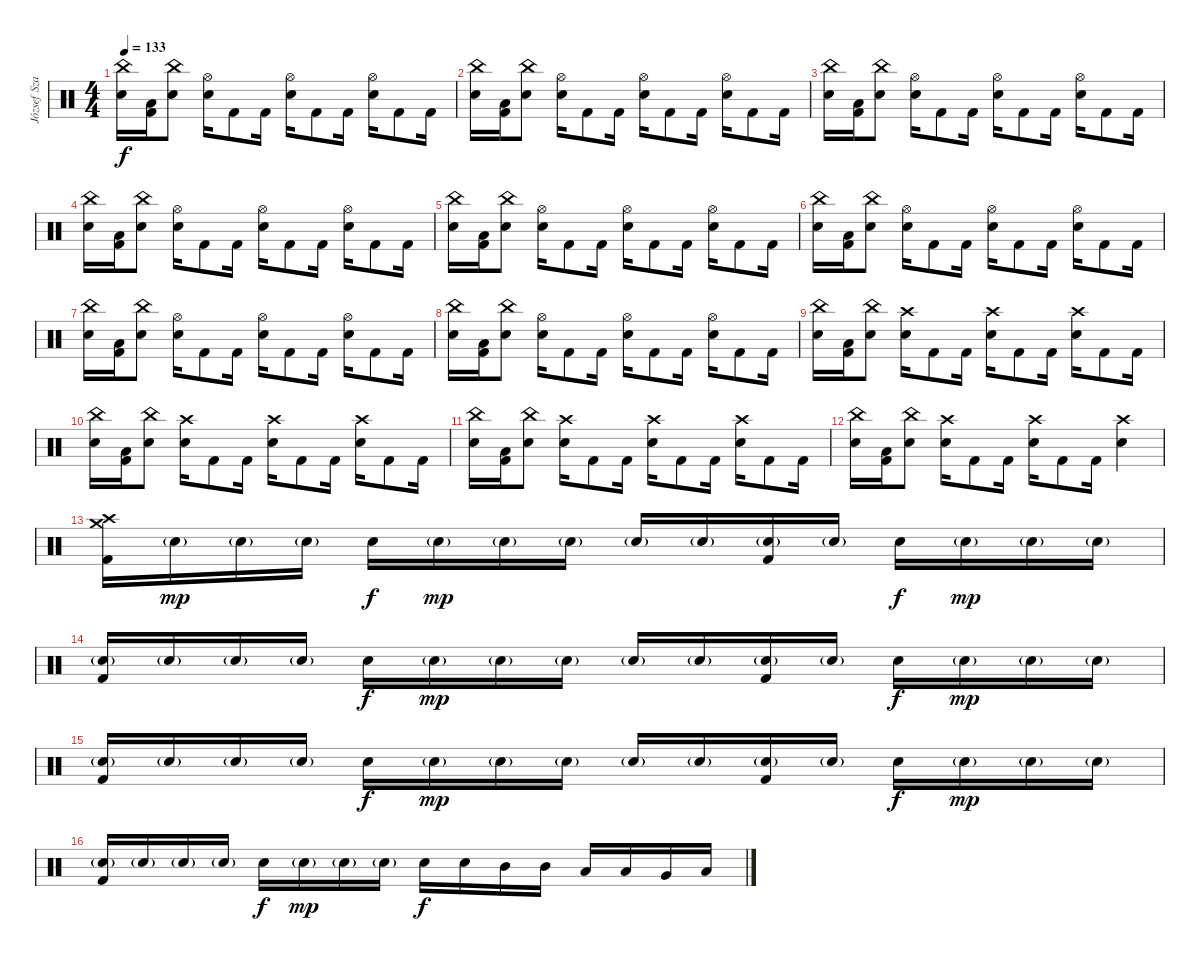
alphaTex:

\track ("József Szakács (Drums)" "József Sza") {instrument percussion}
\staff {score}
\articulation defaults
\ts (4 4)
\tempo 133
\clef neutral
\ks c
("China (hit)" "Snare (hit) 2").16{dy f} ("Kick (hit) 2" "Low Floor Tom (hit)").16 ("China (hit)" "Snare (hit) 2").8 ("Hi-Hat (open)" "Snare (hit) 2").16 "Kick (hit) 2".8 "Kick (hit) 2".16 ("Hi-Hat (open)" "Snare (hit) 2").16 "Kick (hit) 2".8 "Kick (hit) 2".16 ("Hi-Hat (open)" "Snare (hit) 2").16 "Kick (hit) 2".8 "Kick (hit) 2".16 |
("China (hit)" "Snare (hit) 2").16 ("Kick (hit) 2" "Low Floor Tom (hit)").16 ("China (hit)" "Snare (hit) 2").8 ("Hi-Hat (open)" "Snare (hit) 2").16 "Kick (hit) 2".8 "Kick (hit) 2".16 ("Hi-Hat (open)" "Snare (hit) 2").16 "Kick (hit) 2".8 "Kick (hit) 2".16 ("Hi-Hat (open)" "Snare (hit) 2").16 "Kick (hit) 2".8 "Kick (hit) 2".16 |
("China (hit)" "Snare (hit) 2").16 ("Kick (hit) 2" "Low Floor Tom (hit)").16 ("China (hit)" "Snare (hit) 2").8 ("Hi-Hat (open)" "Snare (hit) 2").16 "Kick (hit) 2".8 "Kick (hit) 2".16 ("Hi-Hat (open)" "Snare (hit) 2").16 "Kick (hit) 2".8 "Kick (hit) 2".16 ("Hi-Hat (open)" "Snare (hit) 2").16 "Kick (hit) 2".8 "Kick (hit) 2".16 |
("China (hit)" "Snare (hit) 2").16 ("Kick (hit) 2" "Low Floor Tom (hit)").16 ("China (hit)" "Snare (hit) 2").8 ("Hi-Hat (open)" "Snare (hit) 2").16 "Kick (hit) 2".8 "Kick (hit) 2".16 ("Hi-Hat (open)" "Snare (hit) 2").16 "Kick (hit) 2".8 "Kick (hit) 2".16 ("Hi-Hat (open)" "Snare (hit) 2").16 "Kick (hit) 2".8 "Kick (hit) 2".16 |
("China (hit)" "Snare (hit) 2").16 ("Kick (hit) 2" "Low Floor Tom (hit)").16 ("China (hit)" "Snare (hit) 2").8 ("Hi-Hat (open)" "Snare (hit) 2").16 "Kick (hit) 2".8 "Kick (hit) 2".16 ("Hi-Hat (open)" "Snare (hit) 2").16 "Kick (hit) 2".8 "Kick (hit) 2".16 ("Hi-Hat (open)" "Snare (hit) 2").16 "Kick (hit) 2".8 "Kick (hit) 2".16 |
("China (hit)" "Snare (hit) 2").16 ("Kick (hit) 2" "Low Floor Tom (hit)").16 ("China (hit)" "Snare (hit) 2").8 ("Hi-Hat (open)" "Snare (hit) 2").16 "Kick (hit) 2".8 "Kick (hit) 2".16 ("Hi-Hat (open)" "Snare (hit) 2").16 "Kick (hit) 2".8 "Kick (hit) 2".16 ("Hi-Hat (open)" "Snare (hit) 2").16 "Kick (hit) 2".8 "Kick (hit) 2".16 |
("China (hit)" "Snare (hit) 2").16 ("Kick (hit) 2" "Low Floor Tom (hit)").16 ("China (hit)" "Snare (hit) 2").8 ("Hi-Hat (open)" "Snare (hit) 2").16 "Kick (hit) 2".8 "Kick (hit) 2".16 ("Hi-Hat (open)" "Snare (hit) 2").16 "Kick (hit) 2".8 "Kick (hit) 2".16 ("Hi-Hat (open)" "Snare (hit) 2").16 "Kick (hit) 2".8 "Kick (hit) 2".16 |
("China (hit)" "Snare (hit) 2").16 ("Kick (hit) 2" "Low Floor Tom (hit)").16 ("China (hit)" "Snare (hit) 2").8 ("Hi-Hat (open)" "Snare (hit) 2").16 "Kick (hit) 2".8 "Kick (hit) 2".16 ("Hi-Hat (open)" "Snare (hit) 2").16 "Kick (hit) 2".8 "Kick (hit) 2".16 ("Hi-Hat (open)" "Snare (hit) 2").16 "Kick (hit) 2".8 "Kick (hit) 2".16 |
("China (hit)" "Snare (hit) 2").16 ("Kick (hit) 2" "Low Floor Tom (hit)").16 ("China (hit)" "Snare (hit) 2").8 ("Crash high (hit)" "Snare (hit) 2").16 "Kick (hit) 2".8 "Kick (hit) 2".16 ("Crash high (hit)" "Snare (hit) 2").16 "Kick (hit) 2".8 "Kick (hit) 2".16 ("Crash high (hit)" "Snare (hit) 2").16 "Kick (hit) 2".8 "Kick (hit) 2".16 |
("China (hit)" "Snare (hit) 2").16 ("Kick (hit) 2" "Low Floor Tom (hit)").16 ("China (hit)" "Snare (hit) 2").8 ("Crash high (hit)" "Snare (hit) 2").16 "Kick (hit) 2".8 "Kick (hit) 2".16 ("Crash high (hit)" "Snare (hit) 2").16 "Kick (hit) 2".8 "Kick (hit) 2".16 ("Crash high (hit)" "Snare (hit) 2").16 "Kick (hit) 2".8 "Kick (hit) 2".16 |
("China (hit)" "Snare (hit) 2").16 ("Kick (hit) 2" "Low Floor Tom (hit)").16 ("China (hit)" "Snare (hit) 2").8 ("Crash high (hit)" "Snare (hit) 2").16 "Kick (hit) 2".8 "Kick (hit) 2".16 ("Crash high (hit)" "Snare (hit) 2").16 "Kick (hit) 2".8 "Kick (hit) 2".16 ("Crash high (hit)" "Snare (hit) 2").16 "Kick (hit) 2".8 "Kick (hit) 2".16 |
("China (hit)" "Snare (hit) 2").16 ("Kick (hit) 2" "Low Floor Tom (hit)").16 ("China (hit)" "Snare (hit) 2").8 ("Crash high (hit)" "Snare (hit) 2").16 "Kick (hit) 2".8 "Kick (hit) 2".16 ("Crash high (hit)" "Snare (hit) 2").16 "Kick (hit) 2".8 "Kick (hit) 2".16 ("Crash high (hit)" "Snare (hit) 2").4 |
("Crash medium (hit)" "Crash high (hit)" "Kick (hit) 2").16 "Snare (hit) 2"{g}.16{dy mp} "Snare (hit) 2"{g}.16 "Snare (hit) 2"{g}.16 "Snare (hit) 2".16{dy f} "Snare (hit) 2"{g}.16{dy mp} "Snare (hit) 2"{g}.16 "Snare (hit) 2"{g}.16 "Snare (hit) 2"{g}.16 "Snare (hit) 2"{g}.16 ("Snare (hit) 2"{g} "Kick (hit) 2").16 "Snare (hit) 2"{g}.16 "Snare (hit) 2".16{dy f} "Snare (hit) 2"{g}.16{dy mp} "Snare (hit) 2"{g}.16 "Snare (hit) 2"{g}.16 |
("Snare (hit) 2"{g} "Kick (hit) 2").16 "Snare (hit) 2"{g}.16 "Snare (hit) 2"{g}.16 "Snare (hit) 2"{g}.16 "Snare (hit) 2".16{dy f} "Snare (hit) 2"{g}.16{dy mp} "Snare (hit) 2"{g}.16 "Snare (hit) 2"{g}.16 "Snare (hit) 2"{g}.16 "Snare (hit) 2"{g}.16 ("Snare (hit) 2"{g} "Kick (hit) 2").16 "Snare (hit) 2"{g}.16 "Snare (hit) 2".16{dy f} "Snare (hit) 2"{g}.16{dy mp} "Snare (hit) 2"{g}.16 "Snare (hit) 2"{g}.16 |
("Snare (hit) 2"{g} "Kick (hit) 2").16 "Snare (hit) 2"{g}.16 "Snare (hit) 2"{g}.16 "Snare (hit) 2"{g}.16 "Snare (hit) 2".16{dy f} "Snare (hit) 2"{g}.16{dy mp} "Snare (hit) 2"{g}.16 "Snare (hit) 2"{g}.16 "Snare (hit) 2"{g}.16 "Snare (hit) 2"{g}.16 ("Snare (hit) 2"{g} "Kick (hit) 2").16 "Snare (hit) 2"{g}.16 "Snare (hit) 2".16{dy f} "Snare (hit) 2"{g}.16{dy mp} "Snare (hit) 2"{g}.16 "Snare (hit) 2"{g}.16 |
("Snare (hit) 2"{g} "Kick (hit) 2").16 "Snare (hit) 2"{g}.16 "Snare (hit) 2"{g}.16 "Snare (hit) 2"{g}.16 "Snare (hit) 2".16{dy f} "Snare (hit) 2"{g}.16{dy mp} "Snare (hit) 2"{g}.16 "Snare (hit) 2"{g}.16 "Snare (hit) 2".16{dy f} "Snare (hit) 2".16 "Mid Tom (hit)".16 "Mid Tom (hit)".16 "Low Tom (hit)".16 "Low Tom (hit)".16 "Very Low Tom (hit)".16 "Low Floor Tom (hit)".16
